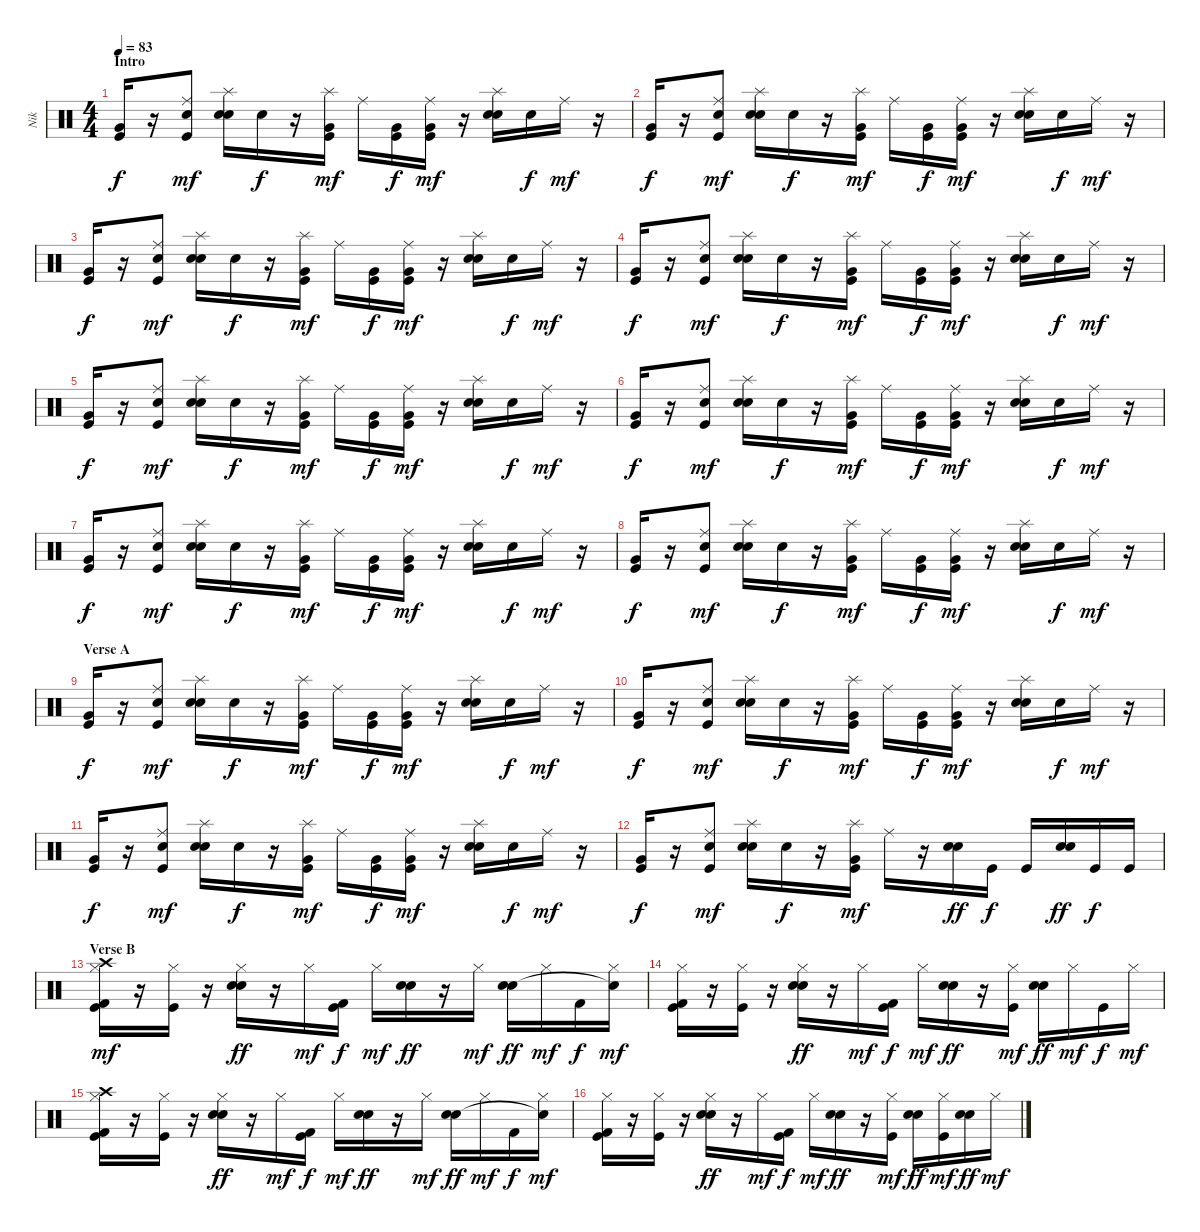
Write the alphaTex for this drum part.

\track ("Nik" "Nik") {instrument percussion}
\staff {score}
\articulation defaults
\ts (4 4)
\section ("" "Intro")
\tempo 83
\clef neutral
\ks c
("Kick (hit)" "Very Low Tom (hit)").16{dy f} r.16 ("Ride (middle)" "Kick (hit)" "Electric Snare (hit)").8{dy mf} ("Splash (hit)" "Electric Snare (hit)" "Electric Snare (hit)").16 "Electric Snare (hit)".16{dy f} r.16 ("Splash (hit)" "Kick (hit)" "Very Low Tom (hit)").16{dy mf} "Ride (middle)".16 ("Kick (hit)" "Very Low Tom (hit)").16{dy f} ("Ride (middle)" "Kick (hit)" "Very Low Tom (hit)").16{dy mf} r.16 ("Splash (hit)" "Electric Snare (hit)" "Electric Snare (hit)").16 "Electric Snare (hit)".16{dy f} "Ride (middle)".16{dy mf} r.16 |
("Kick (hit)" "Very Low Tom (hit)").16{dy f} r.16 ("Ride (middle)" "Kick (hit)" "Electric Snare (hit)").8{dy mf} ("Splash (hit)" "Electric Snare (hit)" "Electric Snare (hit)").16 "Electric Snare (hit)".16{dy f} r.16 ("Splash (hit)" "Kick (hit)" "Very Low Tom (hit)").16{dy mf} "Ride (middle)".16 ("Kick (hit)" "Very Low Tom (hit)").16{dy f} ("Ride (middle)" "Kick (hit)" "Very Low Tom (hit)").16{dy mf} r.16 ("Splash (hit)" "Electric Snare (hit)" "Electric Snare (hit)").16 "Electric Snare (hit)".16{dy f} "Ride (middle)".16{dy mf} r.16 |
("Kick (hit)" "Very Low Tom (hit)").16{dy f} r.16 ("Ride (middle)" "Kick (hit)" "Electric Snare (hit)").8{dy mf} ("Splash (hit)" "Electric Snare (hit)" "Electric Snare (hit)").16 "Electric Snare (hit)".16{dy f} r.16 ("Splash (hit)" "Kick (hit)" "Very Low Tom (hit)").16{dy mf} "Ride (middle)".16 ("Kick (hit)" "Very Low Tom (hit)").16{dy f} ("Ride (middle)" "Kick (hit)" "Very Low Tom (hit)").16{dy mf} r.16 ("Splash (hit)" "Electric Snare (hit)" "Electric Snare (hit)").16 "Electric Snare (hit)".16{dy f} "Ride (middle)".16{dy mf} r.16 |
("Kick (hit)" "Very Low Tom (hit)").16{dy f} r.16 ("Ride (middle)" "Kick (hit)" "Electric Snare (hit)").8{dy mf} ("Splash (hit)" "Electric Snare (hit)" "Electric Snare (hit)").16 "Electric Snare (hit)".16{dy f} r.16 ("Splash (hit)" "Kick (hit)" "Very Low Tom (hit)").16{dy mf} "Ride (middle)".16 ("Kick (hit)" "Very Low Tom (hit)").16{dy f} ("Ride (middle)" "Kick (hit)" "Very Low Tom (hit)").16{dy mf} r.16 ("Splash (hit)" "Electric Snare (hit)" "Electric Snare (hit)").16 "Electric Snare (hit)".16{dy f} "Ride (middle)".16{dy mf} r.16 |
("Kick (hit)" "Very Low Tom (hit)").16{dy f} r.16 ("Ride (middle)" "Kick (hit)" "Electric Snare (hit)").8{dy mf} ("Splash (hit)" "Electric Snare (hit)" "Electric Snare (hit)").16 "Electric Snare (hit)".16{dy f} r.16 ("Splash (hit)" "Kick (hit)" "Very Low Tom (hit)").16{dy mf} "Ride (middle)".16 ("Kick (hit)" "Very Low Tom (hit)").16{dy f} ("Ride (middle)" "Kick (hit)" "Very Low Tom (hit)").16{dy mf} r.16 ("Splash (hit)" "Electric Snare (hit)" "Electric Snare (hit)").16 "Electric Snare (hit)".16{dy f} "Ride (middle)".16{dy mf} r.16 |
("Kick (hit)" "Very Low Tom (hit)").16{dy f} r.16 ("Ride (middle)" "Kick (hit)" "Electric Snare (hit)").8{dy mf} ("Splash (hit)" "Electric Snare (hit)" "Electric Snare (hit)").16 "Electric Snare (hit)".16{dy f} r.16 ("Splash (hit)" "Kick (hit)" "Very Low Tom (hit)").16{dy mf} "Ride (middle)".16 ("Kick (hit)" "Very Low Tom (hit)").16{dy f} ("Ride (middle)" "Kick (hit)" "Very Low Tom (hit)").16{dy mf} r.16 ("Splash (hit)" "Electric Snare (hit)" "Electric Snare (hit)").16 "Electric Snare (hit)".16{dy f} "Ride (middle)".16{dy mf} r.16 |
("Kick (hit)" "Very Low Tom (hit)").16{dy f} r.16 ("Ride (middle)" "Kick (hit)" "Electric Snare (hit)").8{dy mf} ("Splash (hit)" "Electric Snare (hit)" "Electric Snare (hit)").16 "Electric Snare (hit)".16{dy f} r.16 ("Splash (hit)" "Kick (hit)" "Very Low Tom (hit)").16{dy mf} "Ride (middle)".16 ("Kick (hit)" "Very Low Tom (hit)").16{dy f} ("Ride (middle)" "Kick (hit)" "Very Low Tom (hit)").16{dy mf} r.16 ("Splash (hit)" "Electric Snare (hit)" "Electric Snare (hit)").16 "Electric Snare (hit)".16{dy f} "Ride (middle)".16{dy mf} r.16 |
("Kick (hit)" "Very Low Tom (hit)").16{dy f} r.16 ("Ride (middle)" "Kick (hit)" "Electric Snare (hit)").8{dy mf} ("Splash (hit)" "Electric Snare (hit)" "Electric Snare (hit)").16 "Electric Snare (hit)".16{dy f} r.16 ("Splash (hit)" "Kick (hit)" "Very Low Tom (hit)").16{dy mf} "Ride (middle)".16 ("Kick (hit)" "Very Low Tom (hit)").16{dy f} ("Ride (middle)" "Kick (hit)" "Very Low Tom (hit)").16{dy mf} r.16 ("Splash (hit)" "Electric Snare (hit)" "Electric Snare (hit)").16 "Electric Snare (hit)".16{dy f} "Ride (middle)".16{dy mf} r.16 |
\section ("" "Verse A")
("Kick (hit)" "Very Low Tom (hit)").16{dy f} r.16 ("Ride (middle)" "Kick (hit)" "Electric Snare (hit)").8{dy mf} ("Splash (hit)" "Electric Snare (hit)" "Electric Snare (hit)").16 "Electric Snare (hit)".16{dy f} r.16 ("Splash (hit)" "Kick (hit)" "Very Low Tom (hit)").16{dy mf} "Ride (middle)".16 ("Kick (hit)" "Very Low Tom (hit)").16{dy f} ("Ride (middle)" "Kick (hit)" "Very Low Tom (hit)").16{dy mf} r.16 ("Splash (hit)" "Electric Snare (hit)" "Electric Snare (hit)").16 "Electric Snare (hit)".16{dy f} "Ride (middle)".16{dy mf} r.16 |
("Kick (hit)" "Very Low Tom (hit)").16{dy f} r.16 ("Ride (middle)" "Kick (hit)" "Electric Snare (hit)").8{dy mf} ("Splash (hit)" "Electric Snare (hit)" "Electric Snare (hit)").16 "Electric Snare (hit)".16{dy f} r.16 ("Splash (hit)" "Kick (hit)" "Very Low Tom (hit)").16{dy mf} "Ride (middle)".16 ("Kick (hit)" "Very Low Tom (hit)").16{dy f} ("Ride (middle)" "Kick (hit)" "Very Low Tom (hit)").16{dy mf} r.16 ("Splash (hit)" "Electric Snare (hit)" "Electric Snare (hit)").16 "Electric Snare (hit)".16{dy f} "Ride (middle)".16{dy mf} r.16 |
("Kick (hit)" "Very Low Tom (hit)").16{dy f} r.16 ("Ride (middle)" "Kick (hit)" "Electric Snare (hit)").8{dy mf} ("Splash (hit)" "Electric Snare (hit)" "Electric Snare (hit)").16 "Electric Snare (hit)".16{dy f} r.16 ("Splash (hit)" "Kick (hit)" "Very Low Tom (hit)").16{dy mf} "Ride (middle)".16 ("Kick (hit)" "Very Low Tom (hit)").16{dy f} ("Ride (middle)" "Kick (hit)" "Very Low Tom (hit)").16{dy mf} r.16 ("Splash (hit)" "Electric Snare (hit)" "Electric Snare (hit)").16 "Electric Snare (hit)".16{dy f} "Ride (middle)".16{dy mf} r.16 |
("Kick (hit)" "Very Low Tom (hit)").16{dy f} r.16 ("Ride (middle)" "Kick (hit)" "Electric Snare (hit)").8{dy mf} ("Splash (hit)" "Electric Snare (hit)" "Electric Snare (hit)").16 "Electric Snare (hit)".16{dy f} r.16 ("Splash (hit)" "Kick (hit)" "Very Low Tom (hit)").16{dy mf} "Ride (middle)".16 r.16 ("Electric Snare (hit)" "Electric Snare (hit)").16{dy ff volume 16} "Kick (hit)".16{dy f} "Kick (hit)".16 ("Electric Snare (hit)" "Electric Snare (hit)").16{dy ff} "Kick (hit)".16{dy f} "Kick (hit)".16 |
\section ("" "Verse B")
("Hi-Hat (closed)" "Crash high (hit)" "Kick (hit) 2" "Kick (hit)").16{dy mf} r.16 ("Hi-Hat (closed)" "Kick (hit)").16 r.16 ("Hi-Hat (closed)" "Electric Snare (hit)" "Electric Snare (hit)").16{dy ff} r.16 "Hi-Hat (closed)".16{dy mf} ("Kick (hit) 2" "Kick (hit)").16{dy f} "Hi-Hat (closed)".16{dy mf} ("Electric Snare (hit)" "Electric Snare (hit)").16{dy ff} r.16 "Hi-Hat (closed)".16{dy mf} ("Electric Snare (hit)" "Electric Snare (hit)").16{dy ff} "Hi-Hat (closed)".16{dy mf} "Kick (hit) 2".16{dy f} ("Hi-Hat (closed)" "Snare (hit)"{t}).16{dy mf} |
("Hi-Hat (closed)" "Kick (hit) 2" "Kick (hit)").16 r.16 ("Hi-Hat (closed)" "Kick (hit)").16 r.16 ("Hi-Hat (closed)" "Electric Snare (hit)" "Electric Snare (hit)").16{dy ff} r.16 "Hi-Hat (closed)".16{dy mf} ("Kick (hit) 2" "Kick (hit)").16{dy f} "Hi-Hat (closed)".16{dy mf} ("Electric Snare (hit)" "Electric Snare (hit)").16{dy ff} r.16 ("Hi-Hat (closed)" "Kick (hit)").16{dy mf} ("Electric Snare (hit)" "Electric Snare (hit)").16{dy ff} "Hi-Hat (closed)".16{dy mf} "Kick (hit)".16{dy f} "Hi-Hat (closed)".16{dy mf} |
("Hi-Hat (closed)" "Crash high (hit)" "Kick (hit) 2" "Kick (hit)").16 r.16 ("Hi-Hat (closed)" "Kick (hit)").16 r.16 ("Hi-Hat (closed)" "Electric Snare (hit)" "Electric Snare (hit)").16{dy ff} r.16 "Hi-Hat (closed)".16{dy mf} ("Kick (hit) 2" "Kick (hit)").16{dy f} "Hi-Hat (closed)".16{dy mf} ("Electric Snare (hit)" "Electric Snare (hit)").16{dy ff} r.16 "Hi-Hat (closed)".16{dy mf} ("Electric Snare (hit)" "Electric Snare (hit)").16{dy ff} "Hi-Hat (closed)".16{dy mf} "Kick (hit) 2".16{dy f} ("Hi-Hat (closed)" "Snare (hit)"{t}).16{dy mf} |
("Hi-Hat (closed)" "Kick (hit) 2" "Kick (hit)").16 r.16 ("Hi-Hat (closed)" "Kick (hit)").16 r.16 ("Hi-Hat (closed)" "Electric Snare (hit)" "Electric Snare (hit)").16{dy ff} r.16 "Hi-Hat (closed)".16{dy mf} ("Kick (hit) 2" "Kick (hit)").16{dy f} "Hi-Hat (closed)".16{dy mf} ("Electric Snare (hit)" "Electric Snare (hit)").16{dy ff} r.16 ("Hi-Hat (closed)" "Kick (hit)").16{dy mf} ("Electric Snare (hit)" "Electric Snare (hit)").16{dy ff} ("Hi-Hat (closed)" "Kick (hit)").16{dy mf} ("Electric Snare (hit)" "Electric Snare (hit)").16{dy ff} "Hi-Hat (closed)".16{dy mf}
